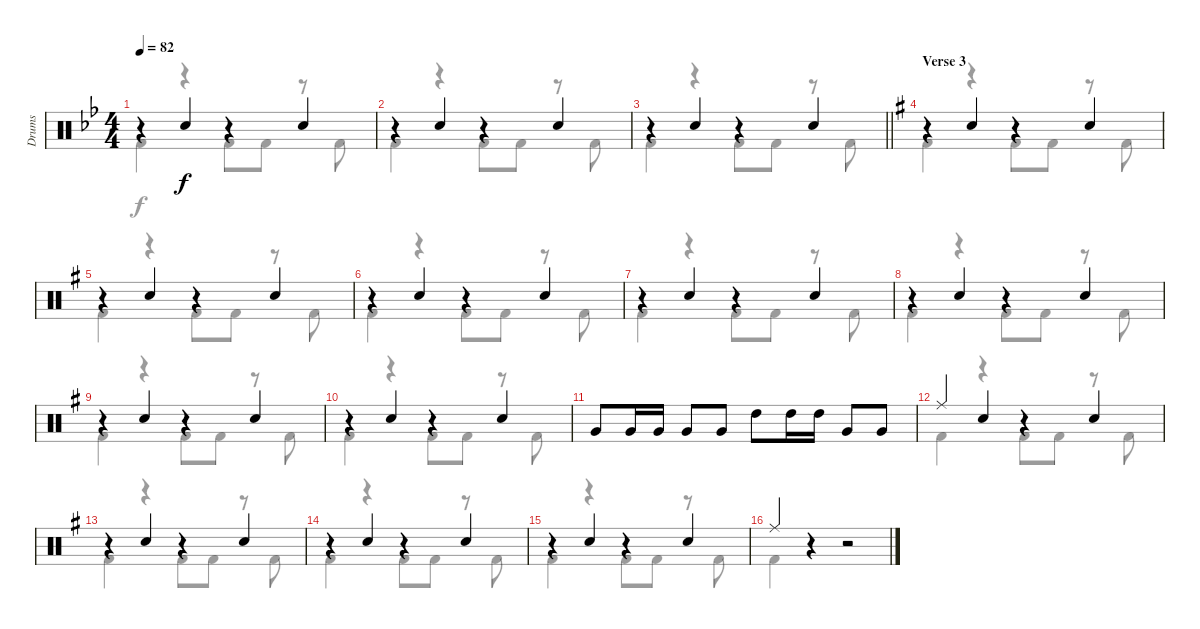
\track ("Drums" "Drums") {instrument percussion}
\staff {score}
\articulation defaults
\voice
\ts (4 4)
\tempo 82
\clef neutral
\ks bb
r.4{dy f} "Electric Snare (hit)".4 r.4 "Electric Snare (hit)".4 |
r.4 "Electric Snare (hit)".4 r.4 "Electric Snare (hit)".4 |
\barLineRight lightlight
r.4 "Electric Snare (hit)".4 r.4 "Electric Snare (hit)".4 |
\section ("" "Verse 3")
\ks eminor
r.4 "Electric Snare (hit)".4 r.4 "Electric Snare (hit)".4 |
r.4 "Electric Snare (hit)".4 r.4 "Electric Snare (hit)".4 |
r.4 "Electric Snare (hit)".4 r.4 "Electric Snare (hit)".4 |
r.4 "Electric Snare (hit)".4 r.4 "Electric Snare (hit)".4 |
r.4 "Electric Snare (hit)".4 r.4 "Electric Snare (hit)".4 |
r.4 "Electric Snare (hit)".4 r.4 "Electric Snare (hit)".4 |
r.4 "Electric Snare (hit)".4 r.4 "Electric Snare (hit)".4 |
\ks g "Very Low Tom (hit)".8 "Very Low Tom (hit)".16 "Very Low Tom (hit)".16 "Very Low Tom (hit)".8 "Very Low Tom (hit)".8 "High Tom (hit)".8 "High Tom (hit)".16 "High Tom (hit)".16 "Very Low Tom (hit)".8 "Very Low Tom (hit)".8
|
\ks eminor "Ride (middle)".4 "Electric Snare (hit)".4
r.4 "Electric Snare (hit)".4 |
r.4 "Electric Snare (hit)".4 r.4 "Electric Snare (hit)".4 |
r.4 "Electric Snare (hit)".4 r.4 "Electric Snare (hit)".4 |
r.4 "Electric Snare (hit)".4 r.4 "Electric Snare (hit)".4 |
"Ride (middle)".4 r.4 r.2
\voice
\clef neutral
\ottava regular
\simile none
\ks bb "Kick (hit) 2".4{dy f}
r.4 "Kick (hit) 2".8 "Kick (hit) 2".8 r.8 "Kick (hit) 2".8 |
"Kick (hit) 2".4 r.4 "Kick (hit) 2".8 "Kick (hit) 2".8 r.8 "Kick (hit) 2".8 |
\barLineRight lightlight "Kick (hit) 2".4
r.4 "Kick (hit) 2".8 "Kick (hit) 2".8 r.8 "Kick (hit) 2".8 |
\ks eminor "Kick (hit) 2".4
r.4 "Kick (hit) 2".8 "Kick (hit) 2".8 r.8 "Kick (hit) 2".8 |
"Kick (hit) 2".4 r.4 "Kick (hit) 2".8 "Kick (hit) 2".8 r.8 "Kick (hit) 2".8 |
"Kick (hit) 2".4 r.4 "Kick (hit) 2".8 "Kick (hit) 2".8 r.8 "Kick (hit) 2".8 |
"Kick (hit) 2".4 r.4 "Kick (hit) 2".8 "Kick (hit) 2".8 r.8 "Kick (hit) 2".8 |
"Kick (hit) 2".4 r.4 "Kick (hit) 2".8 "Kick (hit) 2".8 r.8 "Kick (hit) 2".8 |
"Kick (hit) 2".4 r.4 "Kick (hit) 2".8 "Kick (hit) 2".8 r.8 "Kick (hit) 2".8 |
"Kick (hit) 2".4 r.4 "Kick (hit) 2".8 "Kick (hit) 2".8 r.8 "Kick (hit) 2".8 |
\ks g
|
\ks eminor "Kick (hit) 2".4
r.4 "Kick (hit) 2".8 "Kick (hit) 2".8 r.8 "Kick (hit) 2".8 |
"Kick (hit) 2".4 r.4 "Kick (hit) 2".8 "Kick (hit) 2".8 r.8 "Kick (hit) 2".8 |
"Kick (hit) 2".4 r.4 "Kick (hit) 2".8 "Kick (hit) 2".8 r.8 "Kick (hit) 2".8 |
"Kick (hit) 2".4 r.4 "Kick (hit) 2".8 "Kick (hit) 2".8 r.8 "Kick (hit) 2".8 |
"Kick (hit) 2".4 r.4 r.2
